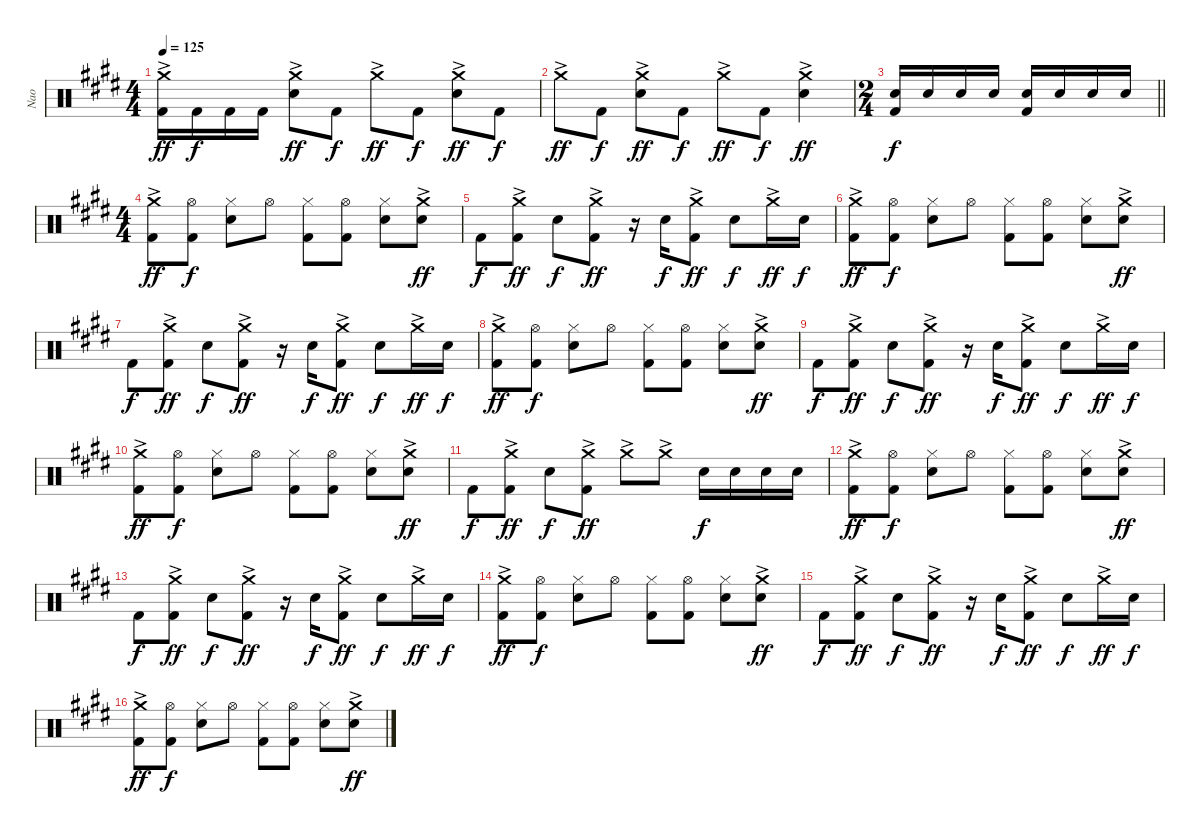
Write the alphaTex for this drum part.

\track ("Nao" "Nao") {instrument percussion}
\staff {score}
\articulation defaults
\ts (4 4)
\tempo 125
\clef neutral
\ks e
("Crash medium (hit)"{ac} "Kick (hit) 2").16{dy ff} "Kick (hit) 2".16{dy f} "Kick (hit) 2".16 "Kick (hit) 2".16 ("Crash medium (hit)"{ac} "Snare (hit) 2").8{dy ff} "Kick (hit) 2".8{dy f} "Crash medium (hit)"{ac}.8{dy ff} "Kick (hit) 2".8{dy f} ("Crash medium (hit)"{ac} "Snare (hit) 2").8{dy ff} "Kick (hit) 2".8{dy f} |
"Crash medium (hit)"{ac}.8{dy ff} "Kick (hit) 2".8{dy f} ("Crash medium (hit)"{ac} "Snare (hit) 2").8{dy ff} "Kick (hit) 2".8{dy f} "Crash medium (hit)"{ac}.8{dy ff} "Kick (hit) 2".8{dy f} ("Crash medium (hit)"{ac} "Snare (hit) 2").4{dy ff} |
\ts (2 4)
\barLineRight lightlight
("Snare (hit) 2" "Kick (hit) 2").16{dy f} "Snare (hit) 2".16 "Snare (hit) 2".16 "Snare (hit) 2".16 ("Snare (hit) 2" "Kick (hit) 2").16 "Snare (hit) 2".16 "Snare (hit) 2".16 "Snare (hit) 2".16 |
\ts (4 4)
("Crash medium (hit)"{ac} "Kick (hit) 2").8{dy ff} ("Hi-Hat (open)" "Kick (hit) 2").8{dy f} ("Hi-Hat (closed)" "Snare (hit) 2").8 "Hi-Hat (open)".8 ("Hi-Hat (closed)" "Kick (hit) 2").8 ("Hi-Hat (open)" "Kick (hit) 2").8 ("Hi-Hat (closed)" "Snare (hit) 2").8 ("Crash medium (hit)"{ac} "Snare (hit) 2").8{dy ff} |
"Kick (hit) 2".8{dy f} ("Crash medium (hit)"{ac} "Kick (hit) 2").8{dy ff} "Snare (hit) 2".8{dy f} ("Crash medium (hit)"{ac} "Kick (hit) 2").8{dy ff} r.16 "Snare (hit) 2".16{dy f} ("Crash medium (hit)"{ac} "Kick (hit) 2").8{dy ff} "Snare (hit) 2".8{dy f} "Crash medium (hit)"{ac}.16{dy ff} "Snare (hit) 2".16{dy f} |
("Crash medium (hit)"{ac} "Kick (hit) 2").8{dy ff} ("Hi-Hat (open)" "Kick (hit) 2").8{dy f} ("Hi-Hat (closed)" "Snare (hit) 2").8 "Hi-Hat (open)".8 ("Hi-Hat (closed)" "Kick (hit) 2").8 ("Hi-Hat (open)" "Kick (hit) 2").8 ("Hi-Hat (closed)" "Snare (hit) 2").8 ("Crash medium (hit)"{ac} "Snare (hit) 2").8{dy ff} |
"Kick (hit) 2".8{dy f} ("Crash medium (hit)"{ac} "Kick (hit) 2").8{dy ff} "Snare (hit) 2".8{dy f} ("Crash medium (hit)"{ac} "Kick (hit) 2").8{dy ff} r.16 "Snare (hit) 2".16{dy f} ("Crash medium (hit)"{ac} "Kick (hit) 2").8{dy ff} "Snare (hit) 2".8{dy f} "Crash medium (hit)"{ac}.16{dy ff} "Snare (hit) 2".16{dy f} |
("Crash medium (hit)"{ac} "Kick (hit) 2").8{dy ff} ("Hi-Hat (open)" "Kick (hit) 2").8{dy f} ("Hi-Hat (closed)" "Snare (hit) 2").8 "Hi-Hat (open)".8 ("Hi-Hat (closed)" "Kick (hit) 2").8 ("Hi-Hat (open)" "Kick (hit) 2").8 ("Hi-Hat (closed)" "Snare (hit) 2").8 ("Crash medium (hit)"{ac} "Snare (hit) 2").8{dy ff} |
"Kick (hit) 2".8{dy f} ("Crash medium (hit)"{ac} "Kick (hit) 2").8{dy ff} "Snare (hit) 2".8{dy f} ("Crash medium (hit)"{ac} "Kick (hit) 2").8{dy ff} r.16 "Snare (hit) 2".16{dy f} ("Crash medium (hit)"{ac} "Kick (hit) 2").8{dy ff} "Snare (hit) 2".8{dy f} "Crash medium (hit)"{ac}.16{dy ff} "Snare (hit) 2".16{dy f} |
("Crash medium (hit)"{ac} "Kick (hit) 2").8{dy ff} ("Hi-Hat (open)" "Kick (hit) 2").8{dy f} ("Hi-Hat (closed)" "Snare (hit) 2").8 "Hi-Hat (open)".8 ("Hi-Hat (closed)" "Kick (hit) 2").8 ("Hi-Hat (open)" "Kick (hit) 2").8 ("Hi-Hat (closed)" "Snare (hit) 2").8 ("Crash medium (hit)"{ac} "Snare (hit) 2").8{dy ff} |
"Kick (hit) 2".8{dy f} ("Crash medium (hit)"{ac} "Kick (hit) 2").8{dy ff} "Snare (hit) 2".8{dy f} ("Crash medium (hit)"{ac} "Kick (hit) 2").8{dy ff} "Crash medium (hit)"{ac}.8 "Crash medium (hit)"{ac}.8 "Snare (hit) 2".16{dy f} "Snare (hit) 2".16 "Snare (hit) 2".16 "Snare (hit) 2".16 |
("Crash medium (hit)"{ac} "Kick (hit) 2").8{dy ff} ("Hi-Hat (open)" "Kick (hit) 2").8{dy f} ("Hi-Hat (closed)" "Snare (hit) 2").8 "Hi-Hat (open)".8 ("Hi-Hat (closed)" "Kick (hit) 2").8 ("Hi-Hat (open)" "Kick (hit) 2").8 ("Hi-Hat (closed)" "Snare (hit) 2").8 ("Crash medium (hit)"{ac} "Snare (hit) 2").8{dy ff} |
"Kick (hit) 2".8{dy f} ("Crash medium (hit)"{ac} "Kick (hit) 2").8{dy ff} "Snare (hit) 2".8{dy f} ("Crash medium (hit)"{ac} "Kick (hit) 2").8{dy ff} r.16 "Snare (hit) 2".16{dy f} ("Crash medium (hit)"{ac} "Kick (hit) 2").8{dy ff} "Snare (hit) 2".8{dy f} "Crash medium (hit)"{ac}.16{dy ff} "Snare (hit) 2".16{dy f} |
("Crash medium (hit)"{ac} "Kick (hit) 2").8{dy ff} ("Hi-Hat (open)" "Kick (hit) 2").8{dy f} ("Hi-Hat (closed)" "Snare (hit) 2").8 "Hi-Hat (open)".8 ("Hi-Hat (closed)" "Kick (hit) 2").8 ("Hi-Hat (open)" "Kick (hit) 2").8 ("Hi-Hat (closed)" "Snare (hit) 2").8 ("Crash medium (hit)"{ac} "Snare (hit) 2").8{dy ff} |
"Kick (hit) 2".8{dy f} ("Crash medium (hit)"{ac} "Kick (hit) 2").8{dy ff} "Snare (hit) 2".8{dy f} ("Crash medium (hit)"{ac} "Kick (hit) 2").8{dy ff} r.16 "Snare (hit) 2".16{dy f} ("Crash medium (hit)"{ac} "Kick (hit) 2").8{dy ff} "Snare (hit) 2".8{dy f} "Crash medium (hit)"{ac}.16{dy ff} "Snare (hit) 2".16{dy f} |
("Crash medium (hit)"{ac} "Kick (hit) 2").8{dy ff} ("Hi-Hat (open)" "Kick (hit) 2").8{dy f} ("Hi-Hat (closed)" "Snare (hit) 2").8 "Hi-Hat (open)".8 ("Hi-Hat (closed)" "Kick (hit) 2").8 ("Hi-Hat (open)" "Kick (hit) 2").8 ("Hi-Hat (closed)" "Snare (hit) 2").8 ("Crash medium (hit)"{ac} "Snare (hit) 2").8{dy ff}
